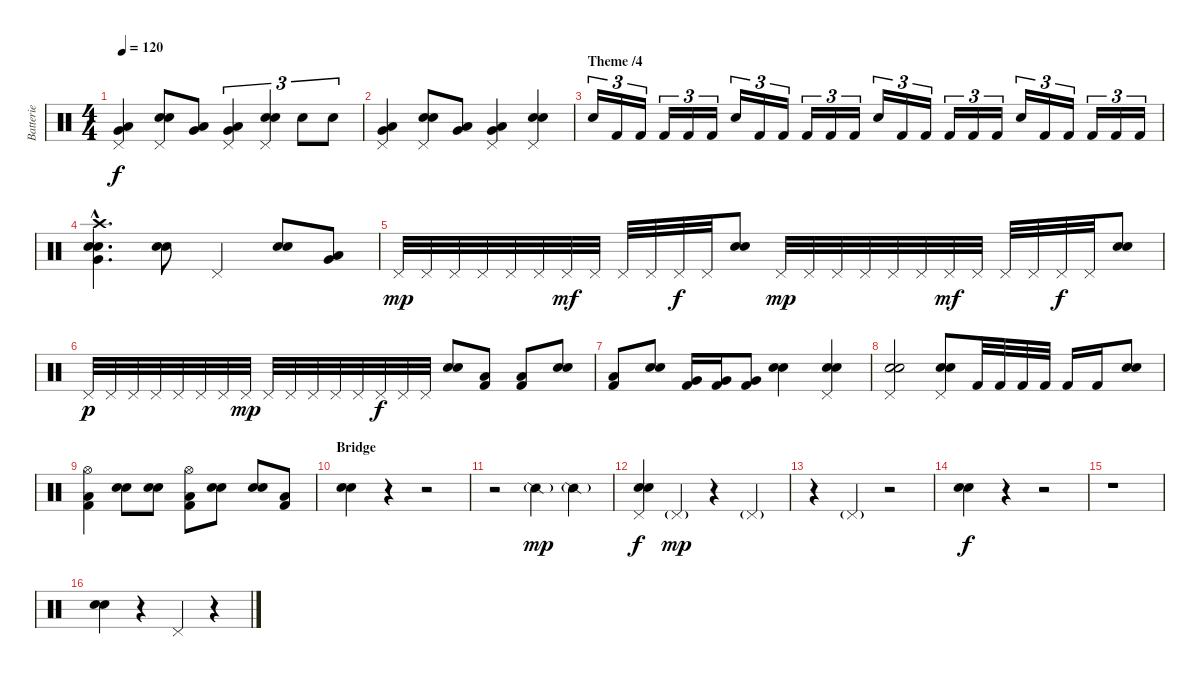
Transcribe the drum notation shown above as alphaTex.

\track ("Batterie" "Batterie") {instrument percussion}
\staff {score}
\articulation defaults
\ts (4 4)
\tempo 120
\clef neutral
\ks c
("Pedal Hi-Hat (hit)" "Very Low Tom (hit)" "Low Floor Tom (hit)").4{dy f} ("Pedal Hi-Hat (hit)" "Electric Snare (hit)" "Electric Snare (hit)").8 ("Very Low Tom (hit)" "Low Floor Tom (hit)").8 ("Pedal Hi-Hat (hit)" "Very Low Tom (hit)" "Low Floor Tom (hit)").4{tu (3 2)} ("Pedal Hi-Hat (hit)" "Electric Snare (hit)" "Electric Snare (hit)").4{tu (3 2)} "Electric Snare (hit)".8{tu (3 2)} "Electric Snare (hit)".8{tu (3 2)} |
("Pedal Hi-Hat (hit)" "Very Low Tom (hit)" "Low Floor Tom (hit)").4 ("Pedal Hi-Hat (hit)" "Electric Snare (hit)" "Electric Snare (hit)").8 ("Very Low Tom (hit)" "Low Floor Tom (hit)").8 ("Pedal Hi-Hat (hit)" "Very Low Tom (hit)" "Low Floor Tom (hit)").4 ("Pedal Hi-Hat (hit)" "Electric Snare (hit)" "Electric Snare (hit)").4 |
\section ("" "Theme /4")
"Electric Snare (hit)".16{tu (3 2)} "Kick (hit) 2".16{tu (3 2)} "Kick (hit) 2".16{tu (3 2)} "Kick (hit) 2".16{tu (3 2)} "Kick (hit) 2".16{tu (3 2)} "Kick (hit) 2".16{tu (3 2)} "Electric Snare (hit)".16{tu (3 2)} "Kick (hit) 2".16{tu (3 2)} "Kick (hit) 2".16{tu (3 2)} "Kick (hit) 2".16{tu (3 2)} "Kick (hit) 2".16{tu (3 2)} "Kick (hit) 2".16{tu (3 2)} "Electric Snare (hit)".16{tu (3 2)} "Kick (hit) 2".16{tu (3 2)} "Kick (hit) 2".16{tu (3 2)} "Kick (hit) 2".16{tu (3 2)} "Kick (hit) 2".16{tu (3 2)} "Kick (hit) 2".16{tu (3 2)} "Electric Snare (hit)".16{tu (3 2)} "Kick (hit) 2".16{tu (3 2)} "Kick (hit) 2".16{tu (3 2)} "Kick (hit) 2".16{tu (3 2)} "Kick (hit) 2".16{tu (3 2)} "Kick (hit) 2".16{tu (3 2)} |
("Crash high (hit)"{hac} "Electric Snare (hit)"{hac} "Electric Snare (hit)"{hac} "Very Low Tom (hit)"{hac}).4{d} ("Electric Snare (hit)" "Electric Snare (hit)").8 "Pedal Hi-Hat (hit)".4 ("Electric Snare (hit)" "Electric Snare (hit)").8 ("Very Low Tom (hit)" "Low Floor Tom (hit)").8 |
"Pedal Hi-Hat (hit)".32{dy mp} "Pedal Hi-Hat (hit)".32 "Pedal Hi-Hat (hit)".32 "Pedal Hi-Hat (hit)".32 "Pedal Hi-Hat (hit)".32 "Pedal Hi-Hat (hit)".32 "Pedal Hi-Hat (hit)".32{dy mf} "Pedal Hi-Hat (hit)".32 "Pedal Hi-Hat (hit)".32 "Pedal Hi-Hat (hit)".32 "Pedal Hi-Hat (hit)".32{dy f} "Pedal Hi-Hat (hit)".32 ("Electric Snare (hit)" "Electric Snare (hit)").8 "Pedal Hi-Hat (hit)".32{dy mp} "Pedal Hi-Hat (hit)".32 "Pedal Hi-Hat (hit)".32 "Pedal Hi-Hat (hit)".32 "Pedal Hi-Hat (hit)".32 "Pedal Hi-Hat (hit)".32 "Pedal Hi-Hat (hit)".32{dy mf} "Pedal Hi-Hat (hit)".32 "Pedal Hi-Hat (hit)".32 "Pedal Hi-Hat (hit)".32 "Pedal Hi-Hat (hit)".32{dy f} "Pedal Hi-Hat (hit)".32 ("Electric Snare (hit)" "Electric Snare (hit)").8 |
"Pedal Hi-Hat (hit)".32{dy p} "Pedal Hi-Hat (hit)".32 "Pedal Hi-Hat (hit)".32 "Pedal Hi-Hat (hit)".32 "Pedal Hi-Hat (hit)".32 "Pedal Hi-Hat (hit)".32 "Pedal Hi-Hat (hit)".32 "Pedal Hi-Hat (hit)".32{dy mp} "Pedal Hi-Hat (hit)".32 "Pedal Hi-Hat (hit)".32 "Pedal Hi-Hat (hit)".32 "Pedal Hi-Hat (hit)".32 "Pedal Hi-Hat (hit)".32 "Pedal Hi-Hat (hit)".32{dy f} "Pedal Hi-Hat (hit)".32 "Pedal Hi-Hat (hit)".32 ("Electric Snare (hit)" "Electric Snare (hit)").8 ("Low Floor Tom (hit)" "Kick (hit) 2").8 ("Low Floor Tom (hit)" "Kick (hit) 2").8 ("Electric Snare (hit)" "Electric Snare (hit)").8 |
("Low Floor Tom (hit)" "Kick (hit) 2").8 ("Electric Snare (hit)" "Electric Snare (hit)").8 ("Very Low Tom (hit)" "Kick (hit) 2").16 ("Very Low Tom (hit)" "Kick (hit) 2").16 ("Very Low Tom (hit)" "Kick (hit) 2").8 ("Electric Snare (hit)" "Electric Snare (hit)").4 ("Pedal Hi-Hat (hit)" "Electric Snare (hit)" "Electric Snare (hit)").4 |
("Pedal Hi-Hat (hit)" "Electric Snare (hit)" "Electric Snare (hit)").2 ("Pedal Hi-Hat (hit)" "Electric Snare (hit)" "Electric Snare (hit)").8 "Kick (hit) 2".32 "Kick (hit) 2".32 "Kick (hit) 2".32 "Kick (hit) 2".32 "Kick (hit) 2".16 "Kick (hit) 2".16 ("Electric Snare (hit)" "Electric Snare (hit)").8 |
("Hi-Hat (open)" "Low Floor Tom (hit)" "Kick (hit) 2").4 ("Electric Snare (hit)" "Electric Snare (hit)").8 ("Electric Snare (hit)" "Electric Snare (hit)").8 ("Hi-Hat (open)" "Low Floor Tom (hit)" "Kick (hit) 2").8 ("Electric Snare (hit)" "Electric Snare (hit)").8 ("Electric Snare (hit)" "Electric Snare (hit)").8 ("Low Floor Tom (hit)" "Kick (hit) 2").8 |
\section ("" "Bridge")
("Electric Snare (hit)" "Electric Snare (hit)").4 r.4 r.2 |
r.2 "Snare (side stick) 2"{g}.4{dy mp} "Snare (side stick) 2"{g}.4 |
("Pedal Hi-Hat (hit)" "Electric Snare (hit)" "Electric Snare (hit)").4{dy f} "Pedal Hi-Hat (hit)"{g}.4{dy mp} r.4 "Pedal Hi-Hat (hit)"{g}.4 |
r.4 "Pedal Hi-Hat (hit)"{g}.4 r.2 |
("Electric Snare (hit)" "Electric Snare (hit)").4{dy f} r.4 r.2 |
r.1 |
("Electric Snare (hit)" "Electric Snare (hit)").4 r.4 "Pedal Hi-Hat (hit)".4 r.4
